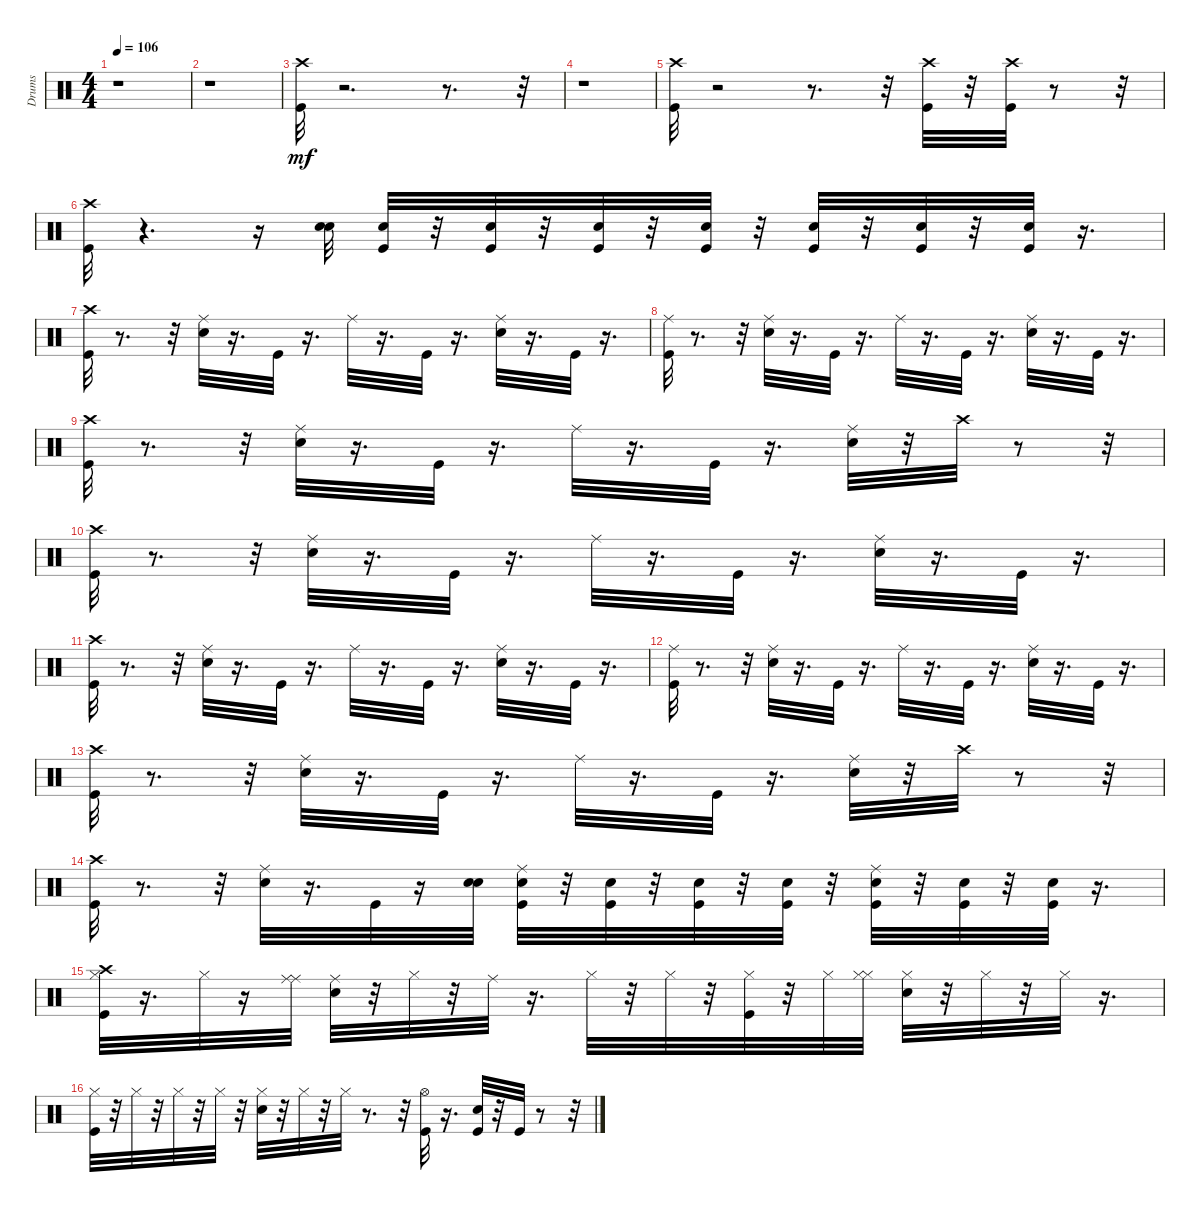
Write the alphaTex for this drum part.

\track ("Drums               " "Drums     ") {instrument percussion}
\staff {score}
\articulation defaults
\ts (4 4)
\tempo 106
\clef neutral
\ks c
r.1{dy mf} |
r.1 |
("Crash high (hit)" "Kick (hit)").32 r.2{d} r.8{d} r.32 |
r.1 |
("Crash high (hit)" "Kick (hit)").32 r.2 r.8{d} r.32 ("Kick (hit)" "Crash high (hit)").32 r.32 ("Crash high (hit)" "Kick (hit)").32 r.8 r.32 |
("Kick (hit)" "Crash high (hit)").32 r.4{d} r.16 ("Snare (hit) 2" "Snare (hit) 2").32 ("Snare (hit) 2" "Kick (hit)").32 r.32 ("Snare (hit) 2" "Kick (hit)").32 r.32 ("Snare (hit) 2" "Kick (hit)").32 r.32 ("Snare (hit) 2" "Kick (hit)").32 r.32 ("Snare (hit) 2" "Kick (hit)").32 r.32 ("Snare (hit) 2" "Kick (hit)").32 r.32 ("Snare (hit) 2" "Kick (hit)").32 r.16{d} |
("Kick (hit)" "Crash high (hit)").32 r.8{d} r.32 ("Ride (middle)" "Snare (hit) 2").32 r.16{d} "Kick (hit)".32 r.16{d} "Ride (middle)".32 r.16{d} "Kick (hit)".32 r.16{d} ("Ride (middle)" "Snare (hit) 2").32 r.16{d} "Kick (hit)".32 r.16{d} |
("Ride (middle)" "Kick (hit)").32 r.8{d} r.32 ("Ride (middle)" "Snare (hit) 2").32 r.16{d} "Kick (hit)".32 r.16{d} "Ride (middle)".32 r.16{d} "Kick (hit)".32 r.16{d} ("Ride (middle)" "Snare (hit) 2").32 r.16{d} "Kick (hit)".32 r.16{d} |
("Kick (hit)" "Crash high (hit)").32 r.8{d} r.32 ("Ride (middle)" "Snare (hit) 2").32 r.16{d} "Kick (hit)".32 r.16{d} "Ride (middle)".32 r.16{d} "Kick (hit)".32 r.16{d} ("Ride (middle)" "Snare (hit) 2").32 r.32 "Crash high (hit)".32 r.8 r.32 |
("Kick (hit)" "Crash high (hit)").32 r.8{d} r.32 ("Ride (middle)" "Snare (hit) 2").32 r.16{d} "Kick (hit)".32 r.16{d} "Ride (middle)".32 r.16{d} "Kick (hit)".32 r.16{d} ("Ride (middle)" "Snare (hit) 2").32 r.16{d} "Kick (hit)".32 r.16{d} |
("Kick (hit)" "Crash high (hit)").32 r.8{d} r.32 ("Ride (middle)" "Snare (hit) 2").32 r.16{d} "Kick (hit)".32 r.16{d} "Ride (middle)".32 r.16{d} "Kick (hit)".32 r.16{d} ("Ride (middle)" "Snare (hit) 2").32 r.16{d} "Kick (hit)".32 r.16{d} |
("Ride (middle)" "Kick (hit)").32 r.8{d} r.32 ("Ride (middle)" "Snare (hit) 2").32 r.16{d} "Kick (hit)".32 r.16{d} "Ride (middle)".32 r.16{d} "Kick (hit)".32 r.16{d} ("Ride (middle)" "Snare (hit) 2").32 r.16{d} "Kick (hit)".32 r.16{d} |
("Kick (hit)" "Crash high (hit)").32 r.8{d} r.32 ("Ride (middle)" "Snare (hit) 2").32 r.16{d} "Kick (hit)".32 r.16{d} "Ride (middle)".32 r.16{d} "Kick (hit)".32 r.16{d} ("Ride (middle)" "Snare (hit) 2").32 r.32 "Crash high (hit)".32 r.8 r.32 |
("Kick (hit)" "Crash high (hit)").32 r.8{d} r.32 ("Ride (middle)" "Snare (hit) 2").32 r.16{d} "Kick (hit)".32 r.16 ("Snare (hit) 2" "Snare (hit) 2").32 ("Ride (middle)" "Snare (hit) 2" "Kick (hit)").32 r.32 ("Snare (hit) 2" "Kick (hit)").32 r.32 ("Kick (hit)" "Snare (hit) 2").32 r.32 ("Snare (hit) 2" "Kick (hit)").32 r.32 ("Ride (middle)" "Snare (hit) 2" "Kick (hit)").32 r.32 ("Snare (hit) 2" "Kick (hit)").32 r.32 ("Kick (hit)" "Snare (hit) 2").32 r.16{d} |
("Crash high (hit)" "Hi-Hat (closed)" "Kick (hit)").32 r.16{d} "Hi-Hat (closed)".32 r.16 ("Ride (middle)" "Ride (middle)").32 ("Ride (middle)" "Snare (hit) 2").32 r.32 "Hi-Hat (closed)".32 r.32 "Ride (middle)".32 r.16{d} "Hi-Hat (closed)".32 r.32 "Hi-Hat (closed)".32 r.32 ("Hi-Hat (closed)" "Kick (hit)").32 r.32 "Hi-Hat (closed)".32 ("Hi-Hat (closed)" "Hi-Hat (closed)").32 ("Hi-Hat (closed)" "Snare (hit) 2").32 r.32 "Hi-Hat (closed)".32 r.32 "Hi-Hat (closed)".32 r.16{d} |
("Hi-Hat (closed)" "Kick (hit)").32 r.32 "Hi-Hat (closed)".32 r.32 "Hi-Hat (closed)".32 r.32 "Hi-Hat (closed)".32 r.32 ("Snare (hit) 2" "Hi-Hat (closed)").32 r.32 "Hi-Hat (closed)".32 r.32 "Hi-Hat (closed)".32 r.8{d} r.32 ("Hi-Hat (open)" "Kick (hit)").32 r.16{d} ("Kick (hit)" "Snare (hit) 2").32 r.32 "Kick (hit)".32 r.8 r.32
